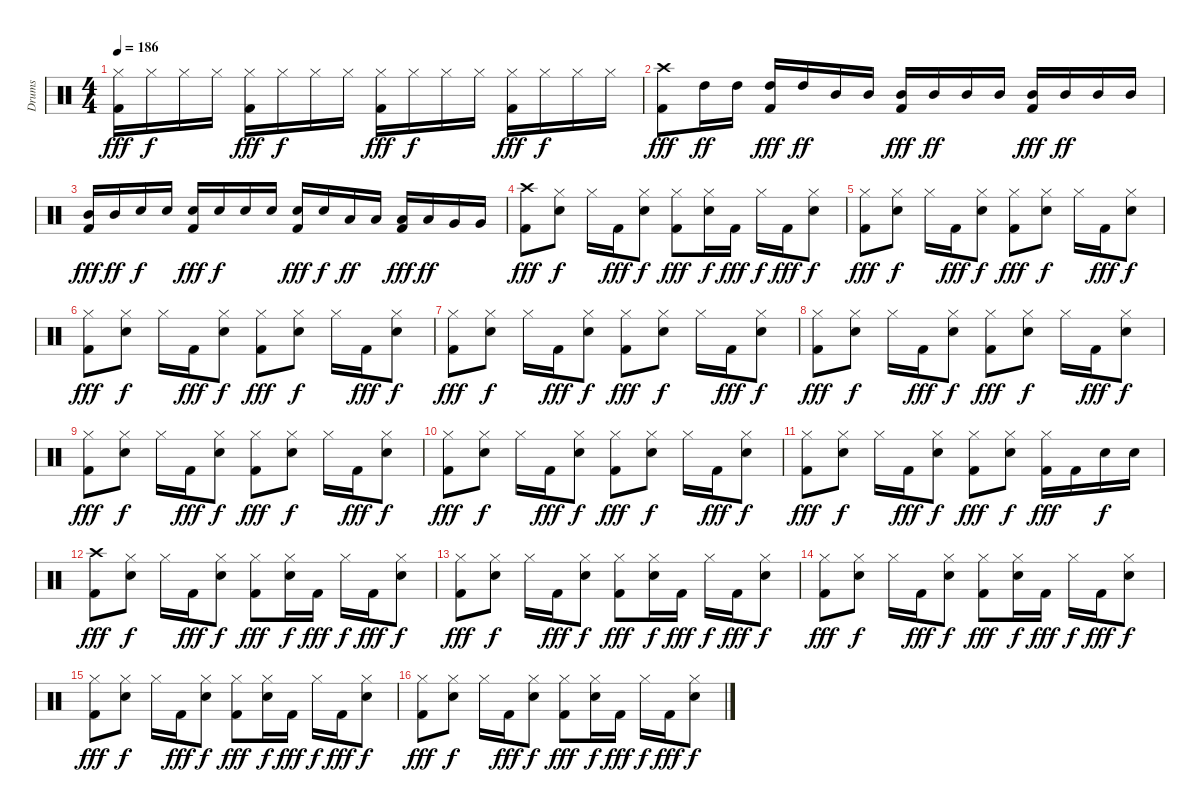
\track ("Drums" "Drums") {instrument percussion}
\staff {score}
\articulation defaults
\ts (4 4)
\tempo 186
\clef neutral
\ks c
("Hi-Hat (closed)" "Kick (hit) 2").16{dy fff} "Hi-Hat (closed)".16{dy f} "Hi-Hat (closed)".16 "Hi-Hat (closed)".16 ("Hi-Hat (closed)" "Kick (hit) 2").16{dy fff} "Hi-Hat (closed)".16{dy f} "Hi-Hat (closed)".16 "Hi-Hat (closed)".16 ("Hi-Hat (closed)" "Kick (hit) 2").16{dy fff} "Hi-Hat (closed)".16{dy f} "Hi-Hat (closed)".16 "Hi-Hat (closed)".16 ("Hi-Hat (closed)" "Kick (hit) 2").16{dy fff} "Hi-Hat (closed)".16{dy f} "Hi-Hat (closed)".16 "Hi-Hat (closed)".16 |
("Crash high (hit)" "Kick (hit) 2").8{dy fff} "High Tom (hit)".16{dy ff} "High Tom (hit)".16 ("High Tom (hit)" "Kick (hit) 2").16{dy fff} "High Tom (hit)".16{dy ff} "Mid Tom (hit)".16 "Mid Tom (hit)".16 ("Mid Tom (hit)" "Kick (hit) 2").16{dy fff} "Mid Tom (hit)".16{dy ff} "Mid Tom (hit)".16 "Mid Tom (hit)".16 ("Mid Tom (hit)" "Kick (hit) 2").16{dy fff} "Mid Tom (hit)".16{dy ff} "Mid Tom (hit)".16 "Mid Tom (hit)".16 |
("Mid Tom (hit)" "Kick (hit) 2").16{dy fff} "Mid Tom (hit)".16{dy ff} "Electric Snare (hit)".16{dy f} "Electric Snare (hit)".16 ("Electric Snare (hit)" "Kick (hit) 2").16{dy fff} "Electric Snare (hit)".16{dy f} "Electric Snare (hit)".16 "Electric Snare (hit)".16 ("Electric Snare (hit)" "Kick (hit) 2").16{dy fff} "Electric Snare (hit)".16{dy f} "Low Tom (hit)".16{dy ff} "Low Tom (hit)".16 ("Low Tom (hit)" "Kick (hit) 2").16{dy fff} "Low Tom (hit)".16{dy ff} "Very Low Tom (hit)".16 "Very Low Tom (hit)".16 |
("Crash high (hit)" "Kick (hit) 2").8{dy fff} ("Hi-Hat (closed)" "Electric Snare (hit)").8{dy f} "Hi-Hat (closed)".16 "Kick (hit) 2".16{dy fff} ("Hi-Hat (closed)" "Electric Snare (hit)").8{dy f} ("Hi-Hat (closed)" "Kick (hit) 2").8{dy fff} ("Hi-Hat (closed)" "Electric Snare (hit)").16{dy f} "Kick (hit) 2".16{dy fff} "Hi-Hat (closed)".16{dy f} "Kick (hit) 2".16{dy fff} ("Hi-Hat (closed)" "Electric Snare (hit)").8{dy f} |
("Hi-Hat (closed)" "Kick (hit) 2").8{dy fff} ("Hi-Hat (closed)" "Electric Snare (hit)").8{dy f} "Hi-Hat (closed)".16 "Kick (hit) 2".16{dy fff} ("Hi-Hat (closed)" "Electric Snare (hit)").8{dy f} ("Hi-Hat (closed)" "Kick (hit) 2").8{dy fff} ("Hi-Hat (closed)" "Electric Snare (hit)").8{dy f} "Hi-Hat (closed)".16 "Kick (hit) 2".16{dy fff} ("Hi-Hat (closed)" "Electric Snare (hit)").8{dy f} |
("Hi-Hat (closed)" "Kick (hit) 2").8{dy fff} ("Hi-Hat (closed)" "Electric Snare (hit)").8{dy f} "Hi-Hat (closed)".16 "Kick (hit) 2".16{dy fff} ("Hi-Hat (closed)" "Electric Snare (hit)").8{dy f} ("Hi-Hat (closed)" "Kick (hit) 2").8{dy fff} ("Hi-Hat (closed)" "Electric Snare (hit)").8{dy f} "Hi-Hat (closed)".16 "Kick (hit) 2".16{dy fff} ("Hi-Hat (closed)" "Electric Snare (hit)").8{dy f} |
("Hi-Hat (closed)" "Kick (hit) 2").8{dy fff} ("Hi-Hat (closed)" "Electric Snare (hit)").8{dy f} "Hi-Hat (closed)".16 "Kick (hit) 2".16{dy fff} ("Hi-Hat (closed)" "Electric Snare (hit)").8{dy f} ("Hi-Hat (closed)" "Kick (hit) 2").8{dy fff} ("Hi-Hat (closed)" "Electric Snare (hit)").8{dy f} "Hi-Hat (closed)".16 "Kick (hit) 2".16{dy fff} ("Hi-Hat (closed)" "Electric Snare (hit)").8{dy f} |
("Hi-Hat (closed)" "Kick (hit) 2").8{dy fff} ("Hi-Hat (closed)" "Electric Snare (hit)").8{dy f} "Hi-Hat (closed)".16 "Kick (hit) 2".16{dy fff} ("Hi-Hat (closed)" "Electric Snare (hit)").8{dy f} ("Hi-Hat (closed)" "Kick (hit) 2").8{dy fff} ("Hi-Hat (closed)" "Electric Snare (hit)").8{dy f} "Hi-Hat (closed)".16 "Kick (hit) 2".16{dy fff} ("Hi-Hat (closed)" "Electric Snare (hit)").8{dy f} |
("Hi-Hat (closed)" "Kick (hit) 2").8{dy fff} ("Hi-Hat (closed)" "Electric Snare (hit)").8{dy f} "Hi-Hat (closed)".16 "Kick (hit) 2".16{dy fff} ("Hi-Hat (closed)" "Electric Snare (hit)").8{dy f} ("Hi-Hat (closed)" "Kick (hit) 2").8{dy fff} ("Hi-Hat (closed)" "Electric Snare (hit)").8{dy f} "Hi-Hat (closed)".16 "Kick (hit) 2".16{dy fff} ("Hi-Hat (closed)" "Electric Snare (hit)").8{dy f} |
("Hi-Hat (closed)" "Kick (hit) 2").8{dy fff} ("Hi-Hat (closed)" "Electric Snare (hit)").8{dy f} "Hi-Hat (closed)".16 "Kick (hit) 2".16{dy fff} ("Hi-Hat (closed)" "Electric Snare (hit)").8{dy f} ("Hi-Hat (closed)" "Kick (hit) 2").8{dy fff} ("Hi-Hat (closed)" "Electric Snare (hit)").8{dy f} "Hi-Hat (closed)".16 "Kick (hit) 2".16{dy fff} ("Hi-Hat (closed)" "Electric Snare (hit)").8{dy f} |
("Hi-Hat (closed)" "Kick (hit) 2").8{dy fff} ("Hi-Hat (closed)" "Electric Snare (hit)").8{dy f} "Hi-Hat (closed)".16 "Kick (hit) 2".16{dy fff} ("Hi-Hat (closed)" "Electric Snare (hit)").8{dy f} ("Hi-Hat (closed)" "Kick (hit) 2").8{dy fff} ("Hi-Hat (closed)" "Electric Snare (hit)").8{dy f} ("Hi-Hat (closed)" "Kick (hit) 2").16{dy fff} "Kick (hit) 2".16 "Electric Snare (hit)".16{dy f} "Electric Snare (hit)".16 |
("Crash high (hit)" "Kick (hit) 2").8{dy fff} ("Hi-Hat (closed)" "Electric Snare (hit)").8{dy f} "Hi-Hat (closed)".16 "Kick (hit) 2".16{dy fff} ("Hi-Hat (closed)" "Electric Snare (hit)").8{dy f} ("Hi-Hat (closed)" "Kick (hit) 2").8{dy fff} ("Hi-Hat (closed)" "Electric Snare (hit)").16{dy f} "Kick (hit) 2".16{dy fff} "Hi-Hat (closed)".16{dy f} "Kick (hit) 2".16{dy fff} ("Hi-Hat (closed)" "Electric Snare (hit)").8{dy f} |
("Hi-Hat (closed)" "Kick (hit) 2").8{dy fff} ("Hi-Hat (closed)" "Electric Snare (hit)").8{dy f} "Hi-Hat (closed)".16 "Kick (hit) 2".16{dy fff} ("Hi-Hat (closed)" "Electric Snare (hit)").8{dy f} ("Hi-Hat (closed)" "Kick (hit) 2").8{dy fff} ("Hi-Hat (closed)" "Electric Snare (hit)").16{dy f} "Kick (hit) 2".16{dy fff} "Hi-Hat (closed)".16{dy f} "Kick (hit) 2".16{dy fff} ("Hi-Hat (closed)" "Electric Snare (hit)").8{dy f} |
("Hi-Hat (closed)" "Kick (hit) 2").8{dy fff} ("Hi-Hat (closed)" "Electric Snare (hit)").8{dy f} "Hi-Hat (closed)".16 "Kick (hit) 2".16{dy fff} ("Hi-Hat (closed)" "Electric Snare (hit)").8{dy f} ("Hi-Hat (closed)" "Kick (hit) 2").8{dy fff} ("Hi-Hat (closed)" "Electric Snare (hit)").16{dy f} "Kick (hit) 2".16{dy fff} "Hi-Hat (closed)".16{dy f} "Kick (hit) 2".16{dy fff} ("Hi-Hat (closed)" "Electric Snare (hit)").8{dy f} |
("Hi-Hat (closed)" "Kick (hit) 2").8{dy fff} ("Hi-Hat (closed)" "Electric Snare (hit)").8{dy f} "Hi-Hat (closed)".16 "Kick (hit) 2".16{dy fff} ("Hi-Hat (closed)" "Electric Snare (hit)").8{dy f} ("Hi-Hat (closed)" "Kick (hit) 2").8{dy fff} ("Hi-Hat (closed)" "Electric Snare (hit)").16{dy f} "Kick (hit) 2".16{dy fff} "Hi-Hat (closed)".16{dy f} "Kick (hit) 2".16{dy fff} ("Hi-Hat (closed)" "Electric Snare (hit)").8{dy f} |
("Hi-Hat (closed)" "Kick (hit) 2").8{dy fff} ("Hi-Hat (closed)" "Electric Snare (hit)").8{dy f} "Hi-Hat (closed)".16 "Kick (hit) 2".16{dy fff} ("Hi-Hat (closed)" "Electric Snare (hit)").8{dy f} ("Hi-Hat (closed)" "Kick (hit) 2").8{dy fff} ("Hi-Hat (closed)" "Electric Snare (hit)").16{dy f} "Kick (hit) 2".16{dy fff} "Hi-Hat (closed)".16{dy f} "Kick (hit) 2".16{dy fff} ("Hi-Hat (closed)" "Electric Snare (hit)").8{dy f}
